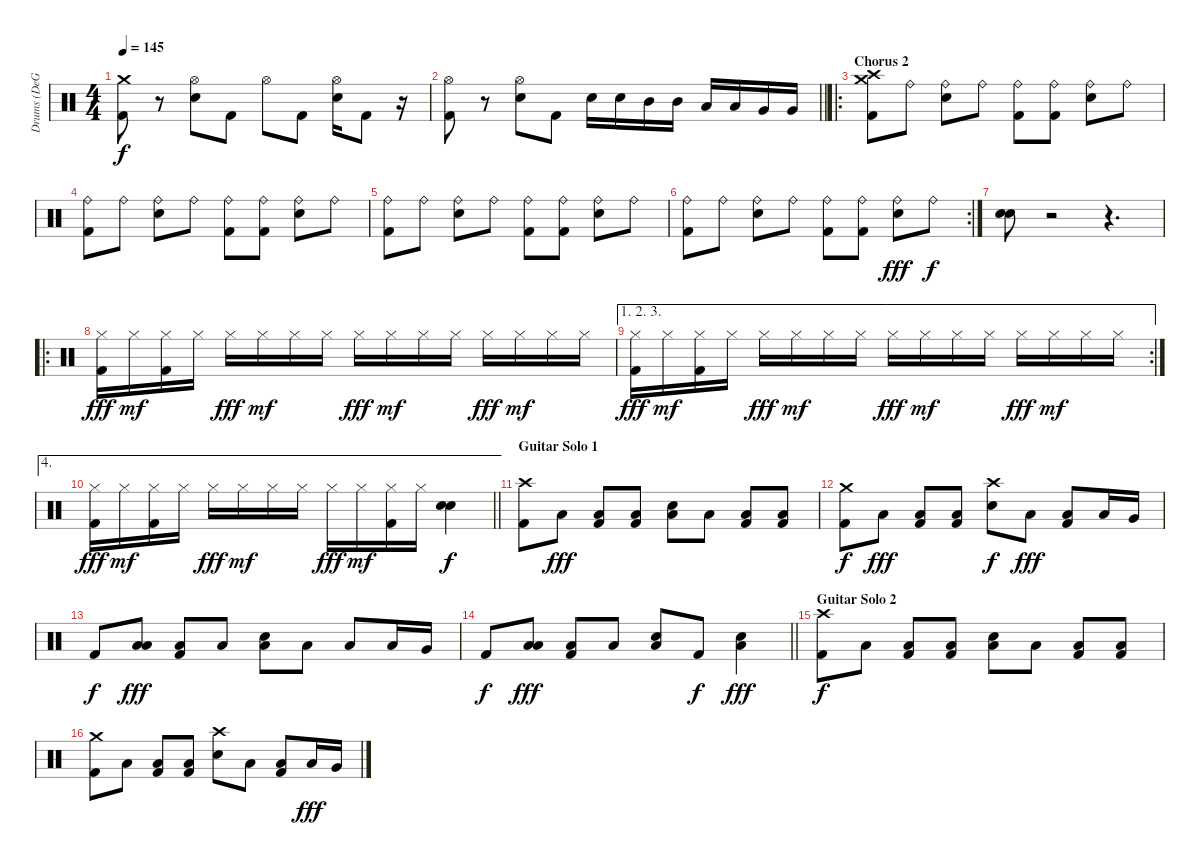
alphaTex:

\track ("Drums (DeGrasso)" "Drums (DeG") {instrument percussion}
\staff {score}
\articulation defaults
\ts (4 4)
\tempo 145
\clef neutral
\ks c
("Crash medium (hit)" "Kick (hit) 2").8{dy f} r.8 ("Hi-Hat (open)" "Snare (hit) 2").8 "Kick (hit) 2".8 "Hi-Hat (open)".8 "Kick (hit) 2".8 ("Hi-Hat (open)" "Snare (hit) 2").16 "Kick (hit) 2".8 r.16 |
\barLineRight lightlight
("Hi-Hat (open)" "Kick (hit) 2").8 r.8 ("Hi-Hat (open)" "Snare (hit) 2").8 "Kick (hit) 2".8 "Snare (hit) 2".16 "Snare (hit) 2".16 "Mid Tom (hit)".16 "Mid Tom (hit)".16 "Low Tom (hit)".16 "Low Tom (hit)".16 "Very Low Tom (hit)".16 "Very Low Tom (hit)".16 |
\ro
\section ("" "Chorus 2")
("Crash high (hit)" "Crash medium (hit)" "Kick (hit) 2").8 "Ride (bell)".8 ("Ride (bell)" "Snare (hit) 2").8 "Ride (bell)".8 ("Ride (bell)" "Kick (hit) 2").8 ("Ride (bell)" "Kick (hit) 2").8 ("Ride (bell)" "Snare (hit) 2").8 "Ride (bell)".8 |
("Ride (bell)" "Kick (hit) 2").8 "Ride (bell)".8 ("Ride (bell)" "Snare (hit) 2").8 "Ride (bell)".8 ("Ride (bell)" "Kick (hit) 2").8 ("Ride (bell)" "Kick (hit) 2").8 ("Ride (bell)" "Snare (hit) 2").8 "Ride (bell)".8 |
("Ride (bell)" "Kick (hit) 2").8 "Ride (bell)".8 ("Ride (bell)" "Snare (hit) 2").8 "Ride (bell)".8 ("Ride (bell)" "Kick (hit) 2").8 ("Ride (bell)" "Kick (hit) 2").8 ("Ride (bell)" "Snare (hit) 2").8 "Ride (bell)".8 |
\rc 2
("Ride (bell)" "Kick (hit) 2").8 "Ride (bell)".8 ("Ride (bell)" "Snare (hit) 2").8 "Ride (bell)".8 ("Ride (bell)" "Kick (hit) 2").8 ("Ride (bell)" "Kick (hit) 2").8 ("Ride (bell)" "Snare (hit) 2").8{dy fff} "Ride (bell)".8{dy f} |
("Snare (hit) 2" "Snare (hit) 2").8 r.2 r.4{d} |
\ro
("Hi-Hat (closed)" "Kick (hit) 2").16{dy fff} "Hi-Hat (closed)".16{dy mf} ("Hi-Hat (closed)" "Kick (hit) 2").16 "Hi-Hat (closed)".16 "Hi-Hat (closed)".16{dy fff} "Hi-Hat (closed)".16{dy mf} "Hi-Hat (closed)".16 "Hi-Hat (closed)".16 "Hi-Hat (closed)".16{dy fff} "Hi-Hat (closed)".16{dy mf} "Hi-Hat (closed)".16 "Hi-Hat (closed)".16 "Hi-Hat (closed)".16{dy fff} "Hi-Hat (closed)".16{dy mf} "Hi-Hat (closed)".16 "Hi-Hat (closed)".16 |
\ae (1 2 3)
\rc 2
("Hi-Hat (closed)" "Kick (hit) 2").16{dy fff} "Hi-Hat (closed)".16{dy mf} ("Hi-Hat (closed)" "Kick (hit) 2").16 "Hi-Hat (closed)".16 "Hi-Hat (closed)".16{dy fff} "Hi-Hat (closed)".16{dy mf} "Hi-Hat (closed)".16 "Hi-Hat (closed)".16 "Hi-Hat (closed)".16{dy fff} "Hi-Hat (closed)".16{dy mf} "Hi-Hat (closed)".16 "Hi-Hat (closed)".16 "Hi-Hat (closed)".16{dy fff} "Hi-Hat (closed)".16{dy mf} "Hi-Hat (closed)".16 "Hi-Hat (closed)".16 |
\ae 4
\barLineRight lightlight
("Hi-Hat (closed)" "Kick (hit) 2").16{dy fff} "Hi-Hat (closed)".16{dy mf} ("Hi-Hat (closed)" "Kick (hit) 2").16 "Hi-Hat (closed)".16 "Hi-Hat (closed)".16{dy fff} "Hi-Hat (closed)".16{dy mf} "Hi-Hat (closed)".16 "Hi-Hat (closed)".16 "Hi-Hat (closed)".16{dy fff} "Hi-Hat (closed)".16{dy mf} ("Hi-Hat (closed)" "Kick (hit) 2").16 "Hi-Hat (closed)".16 ("Snare (hit) 2" "Snare (hit) 2").4{dy f} |
\section ("" "Guitar Solo 1")
("Crash high (hit)" "Kick (hit) 2").8 "Low Floor Tom (hit)".8{dy fff} ("Low Floor Tom (hit)" "Kick (hit) 2").8 ("Low Floor Tom (hit)" "Kick (hit) 2").8 ("Low Floor Tom (hit)" "Snare (hit) 2").8 "Low Floor Tom (hit)".8 ("Low Floor Tom (hit)" "Kick (hit) 2").8 ("Low Floor Tom (hit)" "Kick (hit) 2").8 |
("Crash medium (hit)" "Kick (hit) 2").8{dy f} "Low Floor Tom (hit)".8{dy fff} ("Low Floor Tom (hit)" "Kick (hit) 2").8 ("Low Floor Tom (hit)" "Kick (hit) 2").8 ("Crash high (hit)" "Snare (hit) 2").8{dy f} "Low Floor Tom (hit)".8{dy fff} ("Low Floor Tom (hit)" "Kick (hit) 2").8 "Low Tom (hit)".16 "Very Low Tom (hit)".16 |
"Kick (hit) 2".8{dy f} ("Low Floor Tom (hit)" "Low Tom (hit)").8{dy fff} ("Low Floor Tom (hit)" "Kick (hit) 2").8 "Low Floor Tom (hit)".8 ("Low Floor Tom (hit)" "Snare (hit) 2").8 "Low Floor Tom (hit)".8 "Low Floor Tom (hit)".8 "Low Tom (hit)".16 "Very Low Tom (hit)".16 |
\barLineRight lightlight "Kick (hit) 2".8{dy f}
("Low Tom (hit)" "Low Floor Tom (hit)").8{dy fff} ("Low Floor Tom (hit)" "Kick (hit) 2").8 "Low Floor Tom (hit)".8 ("Low Floor Tom (hit)" "Snare (hit) 2").8 "Kick (hit) 2".8{dy f} ("Low Floor Tom (hit)" "Snare (hit) 2").4{dy fff} |
\section ("" "Guitar Solo 2")
("Crash high (hit)" "Kick (hit) 2").8{dy f} "Low Floor Tom (hit)".8 ("Low Floor Tom (hit)" "Kick (hit) 2").8 ("Low Floor Tom (hit)" "Kick (hit) 2").8 ("Low Floor Tom (hit)" "Snare (hit) 2").8 "Low Floor Tom (hit)".8 ("Low Floor Tom (hit)" "Kick (hit) 2").8 ("Low Floor Tom (hit)" "Kick (hit) 2").8 |
("Crash medium (hit)" "Kick (hit) 2").8 "Low Floor Tom (hit)".8 ("Low Floor Tom (hit)" "Kick (hit) 2").8 ("Low Floor Tom (hit)" "Kick (hit) 2").8 ("Crash high (hit)" "Snare (hit) 2").8 "Low Floor Tom (hit)".8 ("Low Floor Tom (hit)" "Kick (hit) 2").8 "Low Tom (hit)".16{dy fff} "Very Low Tom (hit)".16
